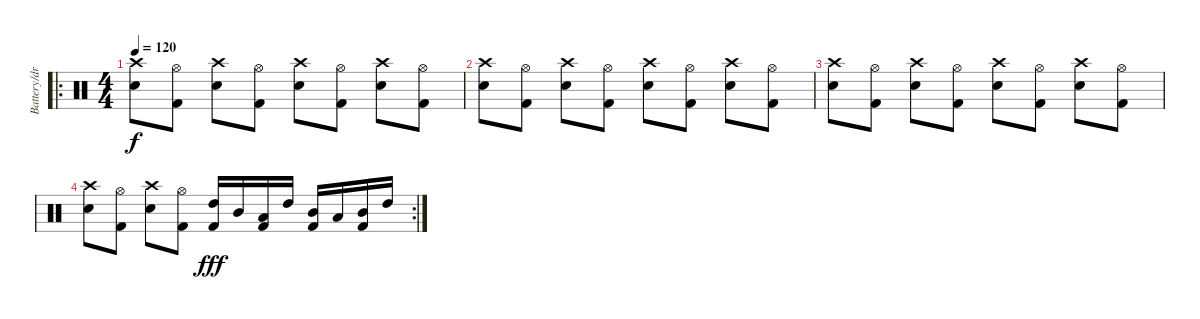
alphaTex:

\track ("Battery/drums" "Battery/dr") {instrument percussion}
\staff {score}
\articulation defaults
\ro
\ts (4 4)
\tempo 120
\clef neutral
\ks c
("Crash high (hit)" "Electric Snare (hit)").8{dy f volume 13} ("Hi-Hat (open)" "Kick (hit) 2").8 ("Crash high (hit)" "Electric Snare (hit)").8 ("Hi-Hat (open)" "Kick (hit) 2").8 ("Crash high (hit)" "Electric Snare (hit)").8 ("Hi-Hat (open)" "Kick (hit) 2").8 ("Crash high (hit)" "Electric Snare (hit)").8 ("Hi-Hat (open)" "Kick (hit) 2").8 |
("Crash high (hit)" "Electric Snare (hit)").8 ("Hi-Hat (open)" "Kick (hit) 2").8 ("Crash high (hit)" "Electric Snare (hit)").8 ("Hi-Hat (open)" "Kick (hit) 2").8 ("Crash high (hit)" "Electric Snare (hit)").8 ("Hi-Hat (open)" "Kick (hit) 2").8 ("Crash high (hit)" "Electric Snare (hit)").8 ("Hi-Hat (open)" "Kick (hit) 2").8 |
("Crash high (hit)" "Electric Snare (hit)").8 ("Hi-Hat (open)" "Kick (hit) 2").8 ("Crash high (hit)" "Electric Snare (hit)").8 ("Hi-Hat (open)" "Kick (hit) 2").8 ("Crash high (hit)" "Electric Snare (hit)").8 ("Hi-Hat (open)" "Kick (hit) 2").8 ("Crash high (hit)" "Electric Snare (hit)").8 ("Hi-Hat (open)" "Kick (hit) 2").8 |
\rc 2
("Crash high (hit)" "Electric Snare (hit)").8 ("Hi-Hat (open)" "Kick (hit) 2").8 ("Crash high (hit)" "Electric Snare (hit)").8 ("Hi-Hat (open)" "Kick (hit) 2").8 ("High Tom (hit)" "Kick (hit) 2").16{dy fff} "Mid Tom (hit)".16 ("Low Tom (hit)" "Kick (hit) 2").16 "High Tom (hit)".16 ("Mid Tom (hit)" "Kick (hit) 2").16 "Low Tom (hit)".16 ("Mid Tom (hit)" "Kick (hit) 2").16 "High Tom (hit)".16
